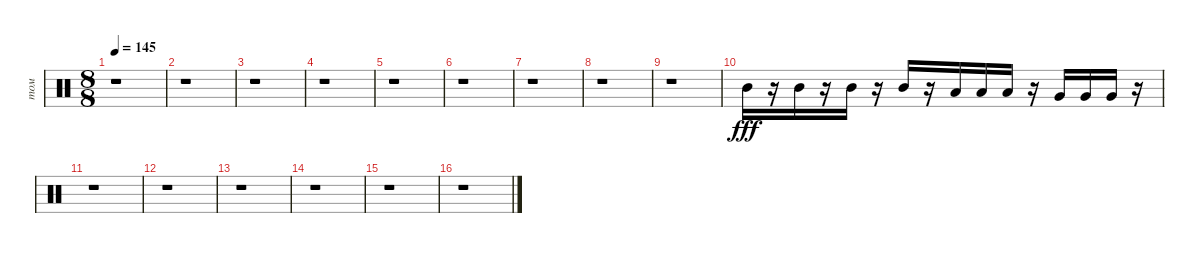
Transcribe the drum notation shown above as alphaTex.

\track ("том" "том") {instrument percussion}
\staff {score}
\articulation defaults
\ts (8 8)
\tempo 145
\clef neutral
\ks c
r.1{dy fff} |
r.1 |
r.1 |
r.1 |
r.1 |
r.1 |
r.1 |
r.1 |
r.1 |
"Mid Tom (hit)".16 r.16 "Mid Tom (hit)".16 r.16 "Mid Tom (hit)".16 r.16 "Mid Tom (hit)".16 r.16 "Low Tom (hit)".16 "Low Tom (hit)".16 "Low Tom (hit)".16 r.16 "Very Low Tom (hit)".16 "Very Low Tom (hit)".16 "Very Low Tom (hit)".16 r.16 |
r.1 |
r.1 |
r.1 |
r.1 |
r.1 |
r.1
